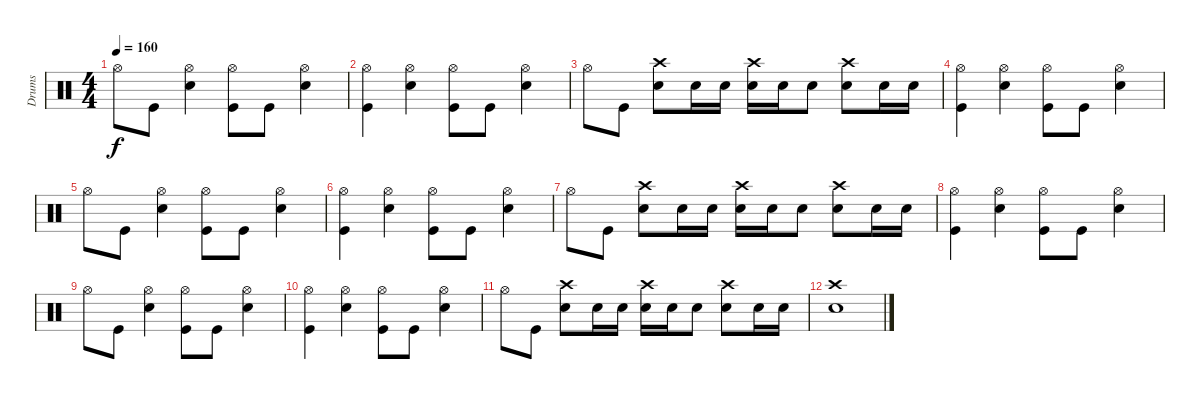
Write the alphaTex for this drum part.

\track ("Drums" "Drums") {instrument percussion}
\staff {score}
\articulation defaults
\ts (4 4)
\tempo 160
\clef neutral
\ks c "Hi-Hat (open)".8{dy f} "Kick (hit)".8
("Hi-Hat (open)" "Electric Snare (hit)").4 ("Hi-Hat (open)" "Kick (hit)").8 "Kick (hit)".8 ("Hi-Hat (open)" "Electric Snare (hit)").4 |
("Hi-Hat (open)" "Kick (hit)").4 ("Hi-Hat (open)" "Electric Snare (hit)").4 ("Hi-Hat (open)" "Kick (hit)").8 "Kick (hit)".8 ("Hi-Hat (open)" "Electric Snare (hit)").4 |
"Hi-Hat (open)".8 "Kick (hit)".8 ("Electric Snare (hit)" "Crash high (hit)").8 "Electric Snare (hit)".16 "Electric Snare (hit)".16 ("Electric Snare (hit)" "Crash high (hit)").16 "Electric Snare (hit)".16 "Electric Snare (hit)".8 ("Electric Snare (hit)" "Crash high (hit)").8 "Electric Snare (hit)".16 "Electric Snare (hit)".16 |
("Hi-Hat (open)" "Kick (hit)").4 ("Hi-Hat (open)" "Electric Snare (hit)").4 ("Hi-Hat (open)" "Kick (hit)").8 "Kick (hit)".8 ("Hi-Hat (open)" "Electric Snare (hit)").4 |
"Hi-Hat (open)".8 "Kick (hit)".8 ("Hi-Hat (open)" "Electric Snare (hit)").4 ("Hi-Hat (open)" "Kick (hit)").8 "Kick (hit)".8 ("Hi-Hat (open)" "Electric Snare (hit)").4 |
("Hi-Hat (open)" "Kick (hit)").4 ("Hi-Hat (open)" "Electric Snare (hit)").4 ("Hi-Hat (open)" "Kick (hit)").8 "Kick (hit)".8 ("Hi-Hat (open)" "Electric Snare (hit)").4 |
"Hi-Hat (open)".8 "Kick (hit)".8 ("Electric Snare (hit)" "Crash high (hit)").8 "Electric Snare (hit)".16 "Electric Snare (hit)".16 ("Electric Snare (hit)" "Crash high (hit)").16 "Electric Snare (hit)".16 "Electric Snare (hit)".8 ("Electric Snare (hit)" "Crash high (hit)").8 "Electric Snare (hit)".16 "Electric Snare (hit)".16 |
("Hi-Hat (open)" "Kick (hit)").4 ("Hi-Hat (open)" "Electric Snare (hit)").4 ("Hi-Hat (open)" "Kick (hit)").8 "Kick (hit)".8 ("Hi-Hat (open)" "Electric Snare (hit)").4 |
"Hi-Hat (open)".8 "Kick (hit)".8 ("Hi-Hat (open)" "Electric Snare (hit)").4 ("Hi-Hat (open)" "Kick (hit)").8 "Kick (hit)".8 ("Hi-Hat (open)" "Electric Snare (hit)").4 |
("Hi-Hat (open)" "Kick (hit)").4 ("Hi-Hat (open)" "Electric Snare (hit)").4 ("Hi-Hat (open)" "Kick (hit)").8 "Kick (hit)".8 ("Hi-Hat (open)" "Electric Snare (hit)").4 |
"Hi-Hat (open)".8 "Kick (hit)".8 ("Electric Snare (hit)" "Crash high (hit)").8 "Electric Snare (hit)".16 "Electric Snare (hit)".16 ("Electric Snare (hit)" "Crash high (hit)").16 "Electric Snare (hit)".16 "Electric Snare (hit)".8 ("Electric Snare (hit)" "Crash high (hit)").8 "Electric Snare (hit)".16 "Electric Snare (hit)".16 |
("Electric Snare (hit)" "Crash high (hit)").1
